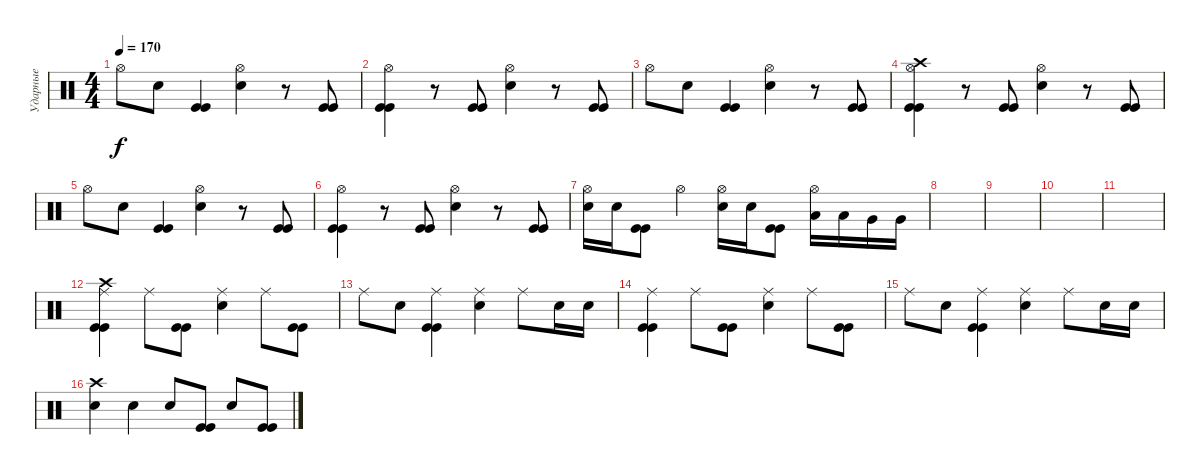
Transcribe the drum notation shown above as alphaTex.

\track ("Ударные" "Ударные") {instrument percussion}
\staff {score}
\articulation defaults
\ts (4 4)
\tempo 170
\clef neutral
\ks c "Hi-Hat (open)".8{dy f} "Electric Snare (hit)".8
("Kick (hit)" "Kick (hit)").4 ("Hi-Hat (open)" "Electric Snare (hit)").4 r.8 ("Kick (hit)" "Kick (hit)").8 |
("Hi-Hat (open)" "Kick (hit)" "Kick (hit)").4 r.8 ("Kick (hit)" "Kick (hit)").8 ("Hi-Hat (open)" "Electric Snare (hit)").4 r.8 ("Kick (hit)" "Kick (hit)").8 |
"Hi-Hat (open)".8 "Electric Snare (hit)".8 ("Kick (hit)" "Kick (hit)").4 ("Hi-Hat (open)" "Electric Snare (hit)").4 r.8 ("Kick (hit)" "Kick (hit)").8 |
("Crash high (hit)" "Hi-Hat (open)" "Kick (hit)" "Kick (hit)").4 r.8 ("Kick (hit)" "Kick (hit)").8 ("Hi-Hat (open)" "Electric Snare (hit)").4 r.8 ("Kick (hit)" "Kick (hit)").8 |
"Hi-Hat (open)".8 "Electric Snare (hit)".8 ("Kick (hit)" "Kick (hit)").4 ("Hi-Hat (open)" "Electric Snare (hit)").4 r.8 ("Kick (hit)" "Kick (hit)").8 |
("Hi-Hat (open)" "Kick (hit)" "Kick (hit)").4 r.8 ("Kick (hit)" "Kick (hit)").8 ("Hi-Hat (open)" "Electric Snare (hit)").4 r.8 ("Kick (hit)" "Kick (hit)").8 |
("Hi-Hat (open)" "Electric Snare (hit)").16 "Electric Snare (hit)".16 ("Kick (hit)" "Kick (hit)").8 "Hi-Hat (open)".4 ("Hi-Hat (open)" "Electric Snare (hit)").16 "Electric Snare (hit)".16 ("Kick (hit)" "Kick (hit)").8 ("Hi-Hat (open)" "Low Tom (hit)").16 "Low Tom (hit)".16 "Very Low Tom (hit)".16 "Very Low Tom (hit)".16 |
|
|
|
|
("Crash high (hit)" "Ride (middle)" "Kick (hit)" "Kick (hit)").4 "Ride (middle)".8 ("Kick (hit)" "Kick (hit)").8 ("Ride (middle)" "Electric Snare (hit)").4 "Ride (middle)".8 ("Kick (hit)" "Kick (hit)").8 |
"Ride (middle)".8 "Electric Snare (hit)".8 ("Ride (middle)" "Kick (hit)" "Kick (hit)").4 ("Ride (middle)" "Electric Snare (hit)").4 "Ride (middle)".8 "Electric Snare (hit)".16 "Electric Snare (hit)".16 |
("Ride (middle)" "Kick (hit)" "Kick (hit)").4 "Ride (middle)".8 ("Kick (hit)" "Kick (hit)").8 ("Ride (middle)" "Electric Snare (hit)").4 "Ride (middle)".8 ("Kick (hit)" "Kick (hit)").8 |
"Ride (middle)".8 "Electric Snare (hit)".8 ("Ride (middle)" "Kick (hit)" "Kick (hit)").4 ("Ride (middle)" "Electric Snare (hit)").4 "Ride (middle)".8 "Electric Snare (hit)".16 "Electric Snare (hit)".16 |
("Crash high (hit)" "Electric Snare (hit)").4 "Electric Snare (hit)".4 "Electric Snare (hit)".8 ("Kick (hit)" "Kick (hit)").8 "Electric Snare (hit)".8 ("Kick (hit)" "Kick (hit)").8
